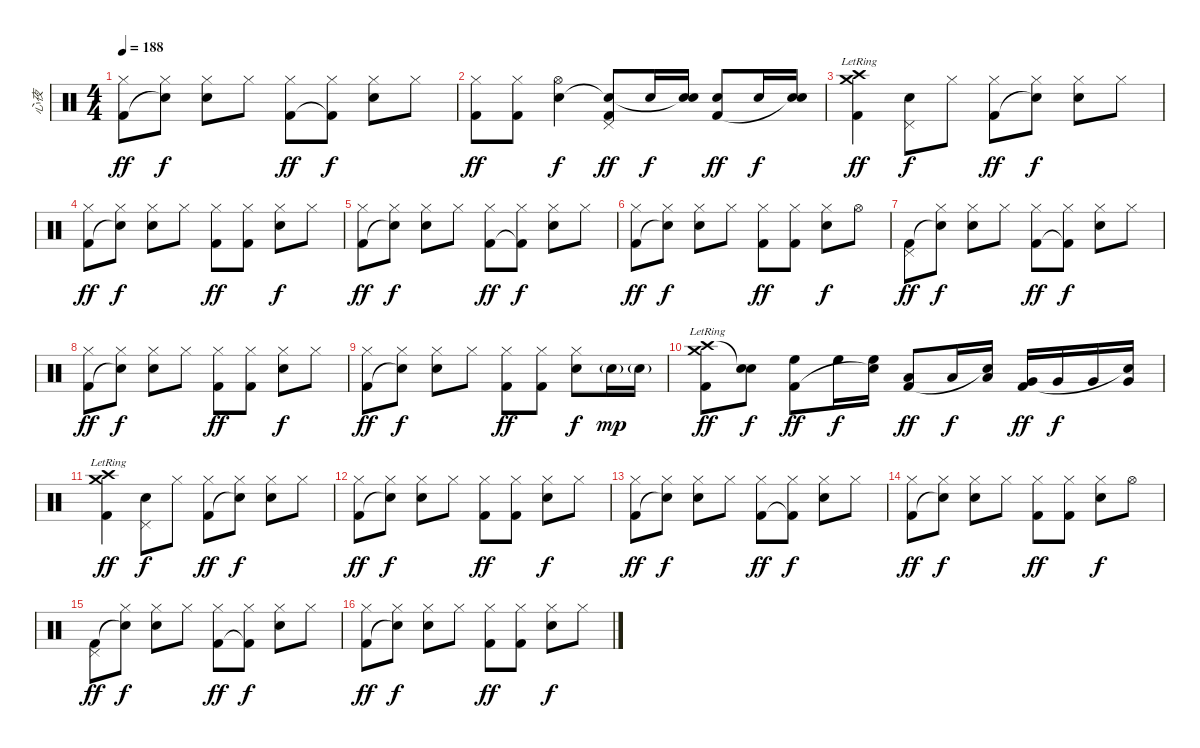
\track ("心夜" "心夜") {instrument percussion}
\staff {score}
\articulation defaults
\ts (4 4)
\tempo 188
\clef neutral
\ks c
("Hi-Hat (closed)" "Kick (hit) 2").8{dy ff} ("Hi-Hat (closed)" "Snare (hit)"{t}).8{dy f} ("Hi-Hat (closed)" "Electric Snare (hit)").8 "Hi-Hat (closed)".8 ("Hi-Hat (closed)" "Kick (hit) 2").8{dy ff} ("Hi-Hat (closed)" "Kick (hit) 2"{t}).8{dy f} ("Hi-Hat (closed)" "Electric Snare (hit)").8 "Hi-Hat (closed)".8 |
("Hi-Hat (closed)" "Kick (hit) 2").8{dy ff} ("Hi-Hat (closed)" "Kick (hit) 2").8 ("Hi-Hat (open)" "Electric Snare (hit)").4{dy f} ("Pedal Hi-Hat (hit)" "Snare (hit)"{t} "Kick (hit) 2").8{dy ff} "Electric Snare (hit)".16{dy f} ("Electric Snare (hit)" "Snare (hit)"{t}).16 ("Electric Snare (hit)" "Kick (hit) 2").8{dy ff} "Electric Snare (hit)".16{dy f} ("Electric Snare (hit)" "Snare (hit)"{t}).16 |
("Crash medium (hit)"{lr} "Crash high (hit)"{lr} "Kick (hit) 2").4{dy ff} ("Pedal Hi-Hat (hit)" "Electric Snare (hit)").8{dy f} "Hi-Hat (closed)".8 ("Hi-Hat (closed)" "Kick (hit) 2").8{dy ff} ("Hi-Hat (closed)" "Snare (hit)"{t}).8{dy f} ("Hi-Hat (closed)" "Electric Snare (hit)").8 "Hi-Hat (closed)".8 |
("Hi-Hat (closed)" "Kick (hit) 2").8{dy ff} ("Hi-Hat (closed)" "Snare (hit)"{t}).8{dy f} ("Hi-Hat (closed)" "Electric Snare (hit)").8 "Hi-Hat (closed)".8 ("Hi-Hat (closed)" "Kick (hit) 2").8{dy ff} ("Hi-Hat (closed)" "Kick (hit) 2").8 ("Hi-Hat (closed)" "Electric Snare (hit)").8{dy f} "Hi-Hat (closed)".8 |
("Hi-Hat (closed)" "Kick (hit) 2").8{dy ff} ("Hi-Hat (closed)" "Snare (hit)"{t}).8{dy f} ("Hi-Hat (closed)" "Electric Snare (hit)").8 "Hi-Hat (closed)".8 ("Hi-Hat (closed)" "Kick (hit) 2").8{dy ff} ("Hi-Hat (closed)" "Kick (hit) 2"{t}).8{dy f} ("Hi-Hat (closed)" "Electric Snare (hit)").8 "Hi-Hat (closed)".8 |
("Hi-Hat (closed)" "Kick (hit) 2").8{dy ff} ("Hi-Hat (closed)" "Snare (hit)"{t}).8{dy f} ("Hi-Hat (closed)" "Electric Snare (hit)").8 "Hi-Hat (closed)".8 ("Hi-Hat (closed)" "Kick (hit) 2").8{dy ff} ("Hi-Hat (closed)" "Kick (hit) 2").8 ("Hi-Hat (closed)" "Electric Snare (hit)").8{dy f} "Hi-Hat (open)".8 |
("Pedal Hi-Hat (hit)" "Kick (hit) 2").8{dy ff} ("Hi-Hat (closed)" "Snare (hit)"{t}).8{dy f} ("Hi-Hat (closed)" "Electric Snare (hit)").8 "Hi-Hat (closed)".8 ("Hi-Hat (closed)" "Kick (hit) 2").8{dy ff} ("Hi-Hat (closed)" "Kick (hit) 2"{t}).8{dy f} ("Hi-Hat (closed)" "Electric Snare (hit)").8 "Hi-Hat (closed)".8 |
("Hi-Hat (closed)" "Kick (hit) 2").8{dy ff} ("Hi-Hat (closed)" "Snare (hit)"{t}).8{dy f} ("Hi-Hat (closed)" "Electric Snare (hit)").8 "Hi-Hat (closed)".8 ("Hi-Hat (closed)" "Kick (hit) 2").8{dy ff} ("Hi-Hat (closed)" "Kick (hit) 2").8 ("Hi-Hat (closed)" "Electric Snare (hit)").8{dy f} "Hi-Hat (closed)".8 |
("Hi-Hat (closed)" "Kick (hit) 2").8{dy ff} ("Hi-Hat (closed)" "Snare (hit)"{t}).8{dy f} ("Hi-Hat (closed)" "Electric Snare (hit)").8 "Hi-Hat (closed)".8 ("Hi-Hat (closed)" "Kick (hit) 2").8{dy ff} ("Hi-Hat (closed)" "Kick (hit) 2").8 ("Hi-Hat (closed)" "Electric Snare (hit)").8{dy f} "Electric Snare (hit)"{g}.16{dy mp} "Electric Snare (hit)"{g}.16 |
("Crash medium (hit)"{lr} "Crash high (hit)"{lr} "Kick (hit) 2").8{dy ff} ("Electric Snare (hit)" "Snare (hit)"{t}).8{dy f} ("High Floor Tom (hit)" "Kick (hit) 2").8{dy ff} "High Floor Tom (hit)".16{dy f} ("High Floor Tom (hit)" "Snare (hit)"{t}).16 ("Low Tom (hit)" "Kick (hit) 2").8{dy ff} "Low Tom (hit)".16{dy f} ("Low Tom (hit)" "Snare (hit)"{t}).16 ("Very Low Tom (hit)" "Kick (hit) 2").16{dy ff} "Very Low Tom (hit)".16{dy f} "Very Low Tom (hit)".16 ("Very Low Tom (hit)" "Snare (hit)"{t}).16 |
("Crash medium (hit)"{lr} "Crash high (hit)"{lr} "Kick (hit) 2").4{dy ff} ("Pedal Hi-Hat (hit)" "Electric Snare (hit)").8{dy f} "Hi-Hat (closed)".8 ("Hi-Hat (closed)" "Kick (hit) 2").8{dy ff} ("Hi-Hat (closed)" "Snare (hit)"{t}).8{dy f} ("Hi-Hat (closed)" "Electric Snare (hit)").8 "Hi-Hat (closed)".8 |
("Hi-Hat (closed)" "Kick (hit) 2").8{dy ff} ("Hi-Hat (closed)" "Snare (hit)"{t}).8{dy f} ("Hi-Hat (closed)" "Electric Snare (hit)").8 "Hi-Hat (closed)".8 ("Hi-Hat (closed)" "Kick (hit) 2").8{dy ff} ("Hi-Hat (closed)" "Kick (hit) 2").8 ("Hi-Hat (closed)" "Electric Snare (hit)").8{dy f} "Hi-Hat (closed)".8 |
("Hi-Hat (closed)" "Kick (hit) 2").8{dy ff} ("Hi-Hat (closed)" "Snare (hit)"{t}).8{dy f} ("Hi-Hat (closed)" "Electric Snare (hit)").8 "Hi-Hat (closed)".8 ("Hi-Hat (closed)" "Kick (hit) 2").8{dy ff} ("Hi-Hat (closed)" "Kick (hit) 2"{t}).8{dy f} ("Hi-Hat (closed)" "Electric Snare (hit)").8 "Hi-Hat (closed)".8 |
("Hi-Hat (closed)" "Kick (hit) 2").8{dy ff} ("Hi-Hat (closed)" "Snare (hit)"{t}).8{dy f} ("Hi-Hat (closed)" "Electric Snare (hit)").8 "Hi-Hat (closed)".8 ("Hi-Hat (closed)" "Kick (hit) 2").8{dy ff} ("Hi-Hat (closed)" "Kick (hit) 2").8 ("Hi-Hat (closed)" "Electric Snare (hit)").8{dy f} "Hi-Hat (open)".8 |
("Pedal Hi-Hat (hit)" "Kick (hit) 2").8{dy ff} ("Hi-Hat (closed)" "Snare (hit)"{t}).8{dy f} ("Hi-Hat (closed)" "Electric Snare (hit)").8 "Hi-Hat (closed)".8 ("Hi-Hat (closed)" "Kick (hit) 2").8{dy ff} ("Hi-Hat (closed)" "Kick (hit) 2"{t}).8{dy f} ("Hi-Hat (closed)" "Electric Snare (hit)").8 "Hi-Hat (closed)".8 |
("Hi-Hat (closed)" "Kick (hit) 2").8{dy ff} ("Hi-Hat (closed)" "Snare (hit)"{t}).8{dy f} ("Hi-Hat (closed)" "Electric Snare (hit)").8 "Hi-Hat (closed)".8 ("Hi-Hat (closed)" "Kick (hit) 2").8{dy ff} ("Hi-Hat (closed)" "Kick (hit) 2").8 ("Hi-Hat (closed)" "Electric Snare (hit)").8{dy f} "Hi-Hat (closed)".8
